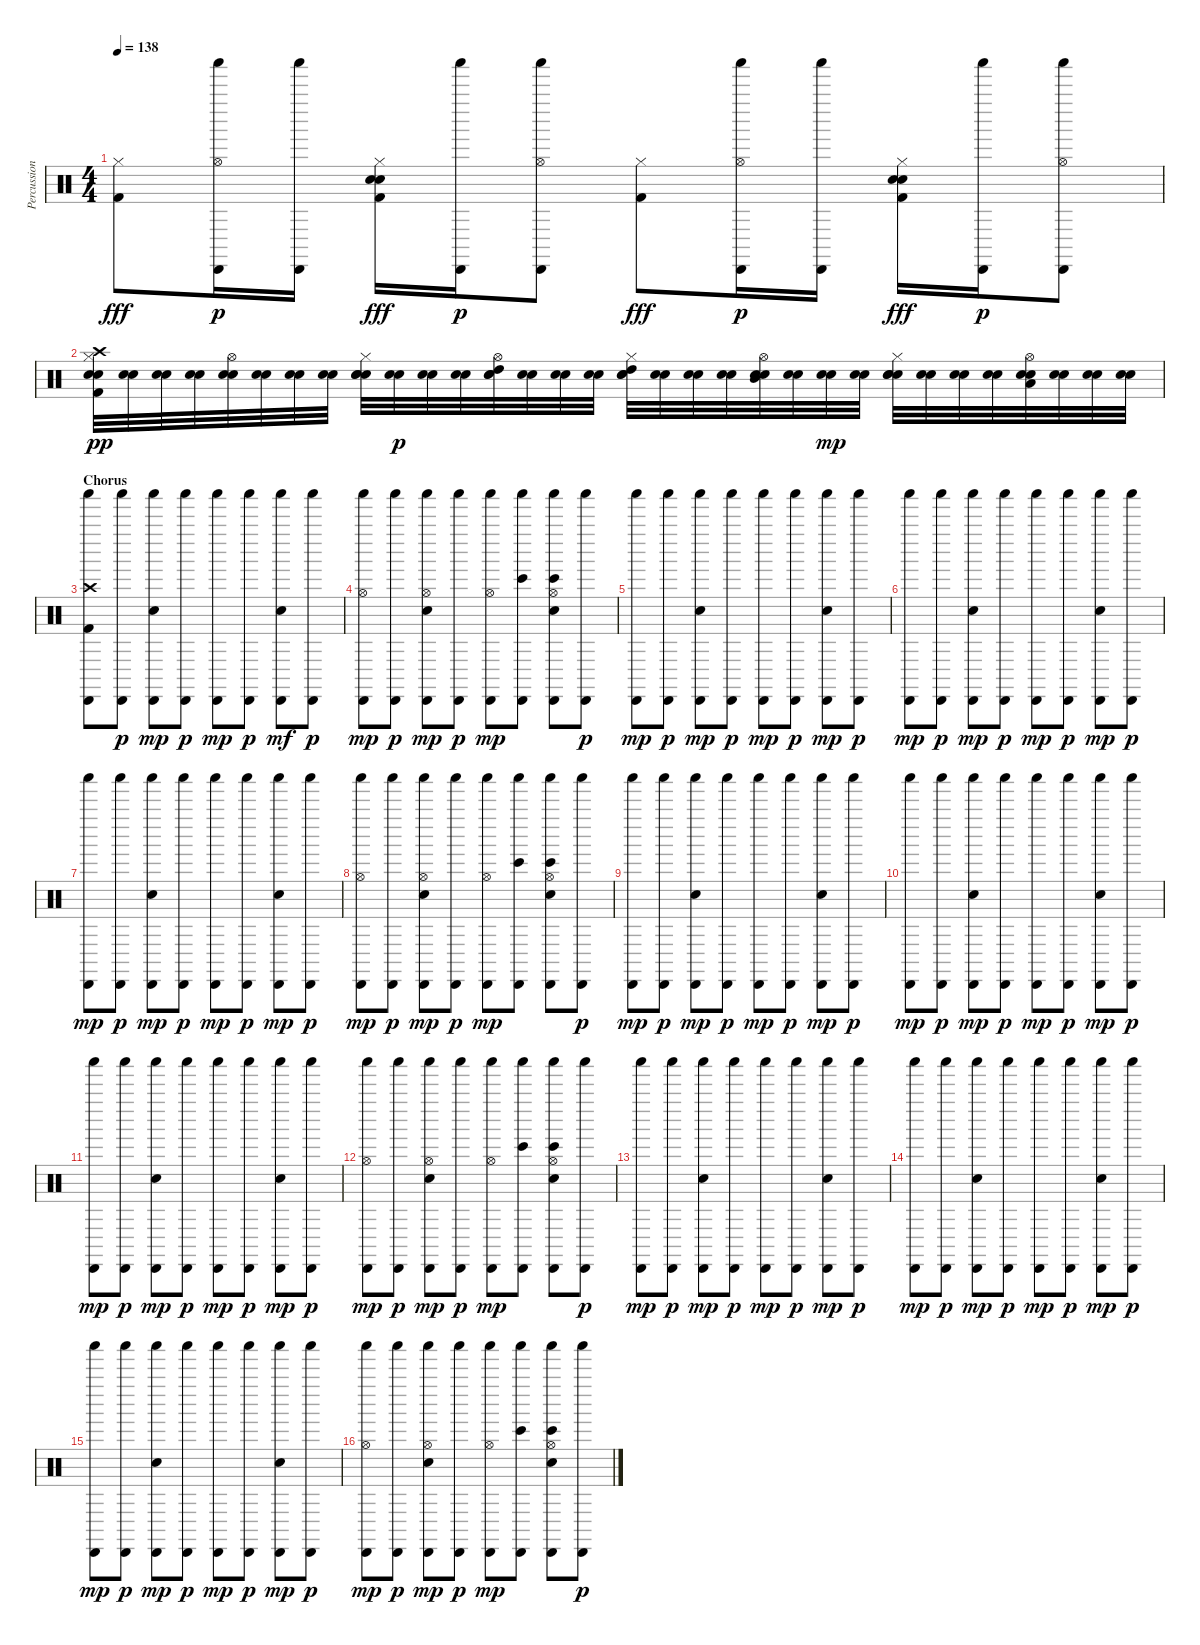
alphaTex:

\track ("Percussion" "Percussion") {instrument percussion}
\staff {score}
\articulation defaults
\ts (4 4)
\tempo 138
\clef neutral
\ks c
("Hi-Hat (closed)" "Kick (hit) 2").8{dy fff} ("Cabasa (hit)" "Hi-Hat (open)" "Shaker (hit)").16{dy p} ("Cabasa (hit)" "Shaker (hit)").16 ("Hi-Hat (closed)" "Snare (hit) 2" "Hand Clap (hit)" "Kick (hit) 2").16{dy fff} ("Cabasa (hit)" "Shaker (hit)").16{dy p} ("Cabasa (hit)" "Hi-Hat (open)" "Shaker (hit)").8 ("Hi-Hat (closed)" "Kick (hit) 2").8{dy fff} ("Cabasa (hit)" "Hi-Hat (open)" "Shaker (hit)").16{dy p} ("Cabasa (hit)" "Shaker (hit)").16 ("Hi-Hat (closed)" "Snare (hit) 2" "Hand Clap (hit)" "Kick (hit) 2").16{dy fff} ("Cabasa (hit)" "Shaker (hit)").16{dy p} ("Cabasa (hit)" "Hi-Hat (open)" "Shaker (hit)").8 |
("Kick (hit) 2" "Snare (hit) 2" "Hi-Hat (closed)" "Crash high (hit)" "Snare (hit) 2").32{dy pp} ("Snare (hit) 2" "Snare (hit) 2").32 ("Snare (hit) 2" "Snare (hit) 2").32 ("Snare (hit) 2" "Snare (hit) 2").32 ("Snare (hit) 2" "Hi-Hat (open)" "Snare (hit) 2").32 ("Snare (hit) 2" "Snare (hit) 2").32 ("Snare (hit) 2" "Snare (hit) 2").32 ("Snare (hit) 2" "Snare (hit) 2").32 ("Snare (hit) 2" "Hand Clap (hit)" "Hi-Hat (closed)" "Snare (hit) 2").32 ("Snare (hit) 2" "Snare (hit) 2").32{dy p} ("Snare (hit) 2" "Snare (hit) 2").32 ("Snare (hit) 2" "Snare (hit) 2").32 ("Snare (hit) 2" "Hi-Hat (open)" "High Tom (hit)" "Snare (hit) 2").32 ("Snare (hit) 2" "Snare (hit) 2").32 ("Snare (hit) 2" "Snare (hit) 2").32 ("Snare (hit) 2" "Snare (hit) 2").32 ("Snare (hit) 2" "Hi-Hat (closed)" "High Tom (hit)" "Snare (hit) 2").32 ("Snare (hit) 2" "Snare (hit) 2").32 ("Snare (hit) 2" "Snare (hit) 2").32 ("Snare (hit) 2" "Snare (hit) 2").32 ("Snare (hit) 2" "Hi-Hat (open)" "Mid Tom (hit)" "Snare (hit) 2").32 ("Snare (hit) 2" "Snare (hit) 2").32 ("Snare (hit) 2" "Snare (hit) 2").32{dy mp} ("Snare (hit) 2" "Snare (hit) 2").32 ("Snare (hit) 2" "Hand Clap (hit)" "Hi-Hat (closed)" "Snare (hit) 2").32 ("Snare (hit) 2" "Snare (hit) 2").32 ("Snare (hit) 2" "Snare (hit) 2").32 ("Snare (hit) 2" "Snare (hit) 2").32 ("Snare (hit) 2" "Low Tom (hit)" "Hi-Hat (open)" "Snare (hit) 2").32 ("Snare (hit) 2" "Snare (hit) 2").32 ("Snare (hit) 2" "Snare (hit) 2").32 ("Snare (hit) 2" "Snare (hit) 2").32 |
\section ("" "Chorus")
("Cabasa (hit)" "Shaker (hit)" "Crash high (hit)" "Kick (hit) 2").8 ("Cabasa (hit)" "Shaker (hit)").8{dy p} ("Cabasa (hit)" "Shaker (hit)" "Hand Clap (hit)").8{dy mp} ("Cabasa (hit)" "Shaker (hit)").8{dy p} ("Cabasa (hit)" "Shaker (hit)").8{dy mp} ("Cabasa (hit)" "Shaker (hit)").8{dy p} ("Cabasa (hit)" "Shaker (hit)" "Hand Clap (hit)").8{dy mf} ("Cabasa (hit)" "Shaker (hit)").8{dy p} |
("Cabasa (hit)" "Hi-Hat (open)" "Shaker (hit)").8{dy mp} ("Cabasa (hit)" "Shaker (hit)").8{dy p} ("Cabasa (hit)" "Hi-Hat (open)" "Shaker (hit)" "Hand Clap (hit)").8{dy mp} ("Cabasa (hit)" "Shaker (hit)").8{dy p} ("Cabasa (hit)" "Hi-Hat (open)" "Shaker (hit)").8{dy mp} ("Cabasa (hit)" "Shaker (hit)" "Bongo High (hit)").8 ("Cabasa (hit)" "Hi-Hat (open)" "Shaker (hit)" "Bongo High (hit)" "Hand Clap (hit)").8 ("Cabasa (hit)" "Shaker (hit)").8{dy p} |
("Cabasa (hit)" "Shaker (hit)").8{dy mp} ("Cabasa (hit)" "Shaker (hit)").8{dy p} ("Cabasa (hit)" "Shaker (hit)" "Hand Clap (hit)").8{dy mp} ("Cabasa (hit)" "Shaker (hit)").8{dy p} ("Cabasa (hit)" "Shaker (hit)").8{dy mp} ("Cabasa (hit)" "Shaker (hit)").8{dy p} ("Cabasa (hit)" "Shaker (hit)" "Hand Clap (hit)").8{dy mp} ("Cabasa (hit)" "Shaker (hit)").8{dy p} |
("Cabasa (hit)" "Shaker (hit)").8{dy mp} ("Cabasa (hit)" "Shaker (hit)").8{dy p} ("Cabasa (hit)" "Shaker (hit)" "Hand Clap (hit)").8{dy mp} ("Cabasa (hit)" "Shaker (hit)").8{dy p} ("Cabasa (hit)" "Shaker (hit)").8{dy mp} ("Cabasa (hit)" "Shaker (hit)").8{dy p} ("Cabasa (hit)" "Shaker (hit)" "Hand Clap (hit)").8{dy mp} ("Cabasa (hit)" "Shaker (hit)").8{dy p} |
("Cabasa (hit)" "Shaker (hit)").8{dy mp} ("Cabasa (hit)" "Shaker (hit)").8{dy p} ("Cabasa (hit)" "Shaker (hit)" "Hand Clap (hit)").8{dy mp} ("Cabasa (hit)" "Shaker (hit)").8{dy p} ("Cabasa (hit)" "Shaker (hit)").8{dy mp} ("Cabasa (hit)" "Shaker (hit)").8{dy p} ("Cabasa (hit)" "Shaker (hit)" "Hand Clap (hit)").8{dy mp} ("Cabasa (hit)" "Shaker (hit)").8{dy p} |
("Cabasa (hit)" "Hi-Hat (open)" "Shaker (hit)").8{dy mp} ("Cabasa (hit)" "Shaker (hit)").8{dy p} ("Cabasa (hit)" "Hi-Hat (open)" "Shaker (hit)" "Hand Clap (hit)").8{dy mp} ("Cabasa (hit)" "Shaker (hit)").8{dy p} ("Cabasa (hit)" "Hi-Hat (open)" "Shaker (hit)").8{dy mp} ("Cabasa (hit)" "Shaker (hit)" "Bongo High (hit)").8 ("Cabasa (hit)" "Hi-Hat (open)" "Shaker (hit)" "Bongo High (hit)" "Hand Clap (hit)").8 ("Cabasa (hit)" "Shaker (hit)").8{dy p} |
("Cabasa (hit)" "Shaker (hit)").8{dy mp} ("Cabasa (hit)" "Shaker (hit)").8{dy p} ("Cabasa (hit)" "Shaker (hit)" "Hand Clap (hit)").8{dy mp} ("Cabasa (hit)" "Shaker (hit)").8{dy p} ("Cabasa (hit)" "Shaker (hit)").8{dy mp} ("Cabasa (hit)" "Shaker (hit)").8{dy p} ("Cabasa (hit)" "Shaker (hit)" "Hand Clap (hit)").8{dy mp} ("Cabasa (hit)" "Shaker (hit)").8{dy p} |
("Cabasa (hit)" "Shaker (hit)").8{dy mp} ("Cabasa (hit)" "Shaker (hit)").8{dy p} ("Cabasa (hit)" "Shaker (hit)" "Hand Clap (hit)").8{dy mp} ("Cabasa (hit)" "Shaker (hit)").8{dy p} ("Cabasa (hit)" "Shaker (hit)").8{dy mp} ("Cabasa (hit)" "Shaker (hit)").8{dy p} ("Cabasa (hit)" "Shaker (hit)" "Hand Clap (hit)").8{dy mp} ("Cabasa (hit)" "Shaker (hit)").8{dy p} |
("Cabasa (hit)" "Shaker (hit)").8{dy mp} ("Cabasa (hit)" "Shaker (hit)").8{dy p} ("Cabasa (hit)" "Shaker (hit)" "Hand Clap (hit)").8{dy mp} ("Cabasa (hit)" "Shaker (hit)").8{dy p} ("Cabasa (hit)" "Shaker (hit)").8{dy mp} ("Cabasa (hit)" "Shaker (hit)").8{dy p} ("Cabasa (hit)" "Shaker (hit)" "Hand Clap (hit)").8{dy mp} ("Cabasa (hit)" "Shaker (hit)").8{dy p} |
("Cabasa (hit)" "Hi-Hat (open)" "Shaker (hit)").8{dy mp} ("Cabasa (hit)" "Shaker (hit)").8{dy p} ("Cabasa (hit)" "Hi-Hat (open)" "Shaker (hit)" "Hand Clap (hit)").8{dy mp} ("Cabasa (hit)" "Shaker (hit)").8{dy p} ("Cabasa (hit)" "Hi-Hat (open)" "Shaker (hit)").8{dy mp} ("Cabasa (hit)" "Shaker (hit)" "Bongo High (hit)").8 ("Cabasa (hit)" "Hi-Hat (open)" "Shaker (hit)" "Bongo High (hit)" "Hand Clap (hit)").8 ("Cabasa (hit)" "Shaker (hit)").8{dy p} |
("Cabasa (hit)" "Shaker (hit)").8{dy mp} ("Cabasa (hit)" "Shaker (hit)").8{dy p} ("Cabasa (hit)" "Shaker (hit)" "Hand Clap (hit)").8{dy mp} ("Cabasa (hit)" "Shaker (hit)").8{dy p} ("Cabasa (hit)" "Shaker (hit)").8{dy mp} ("Cabasa (hit)" "Shaker (hit)").8{dy p} ("Cabasa (hit)" "Shaker (hit)" "Hand Clap (hit)").8{dy mp} ("Cabasa (hit)" "Shaker (hit)").8{dy p} |
("Cabasa (hit)" "Shaker (hit)").8{dy mp} ("Cabasa (hit)" "Shaker (hit)").8{dy p} ("Cabasa (hit)" "Shaker (hit)" "Hand Clap (hit)").8{dy mp} ("Cabasa (hit)" "Shaker (hit)").8{dy p} ("Cabasa (hit)" "Shaker (hit)").8{dy mp} ("Cabasa (hit)" "Shaker (hit)").8{dy p} ("Cabasa (hit)" "Shaker (hit)" "Hand Clap (hit)").8{dy mp} ("Cabasa (hit)" "Shaker (hit)").8{dy p} |
("Cabasa (hit)" "Shaker (hit)").8{dy mp} ("Cabasa (hit)" "Shaker (hit)").8{dy p} ("Cabasa (hit)" "Shaker (hit)" "Hand Clap (hit)").8{dy mp} ("Cabasa (hit)" "Shaker (hit)").8{dy p} ("Cabasa (hit)" "Shaker (hit)").8{dy mp} ("Cabasa (hit)" "Shaker (hit)").8{dy p} ("Cabasa (hit)" "Shaker (hit)" "Hand Clap (hit)").8{dy mp} ("Cabasa (hit)" "Shaker (hit)").8{dy p} |
("Cabasa (hit)" "Hi-Hat (open)" "Shaker (hit)").8{dy mp} ("Cabasa (hit)" "Shaker (hit)").8{dy p} ("Cabasa (hit)" "Hi-Hat (open)" "Shaker (hit)" "Hand Clap (hit)").8{dy mp} ("Cabasa (hit)" "Shaker (hit)").8{dy p} ("Cabasa (hit)" "Hi-Hat (open)" "Shaker (hit)").8{dy mp} ("Cabasa (hit)" "Shaker (hit)" "Bongo High (hit)").8 ("Cabasa (hit)" "Hi-Hat (open)" "Shaker (hit)" "Bongo High (hit)" "Hand Clap (hit)").8 ("Cabasa (hit)" "Shaker (hit)").8{dy p}
